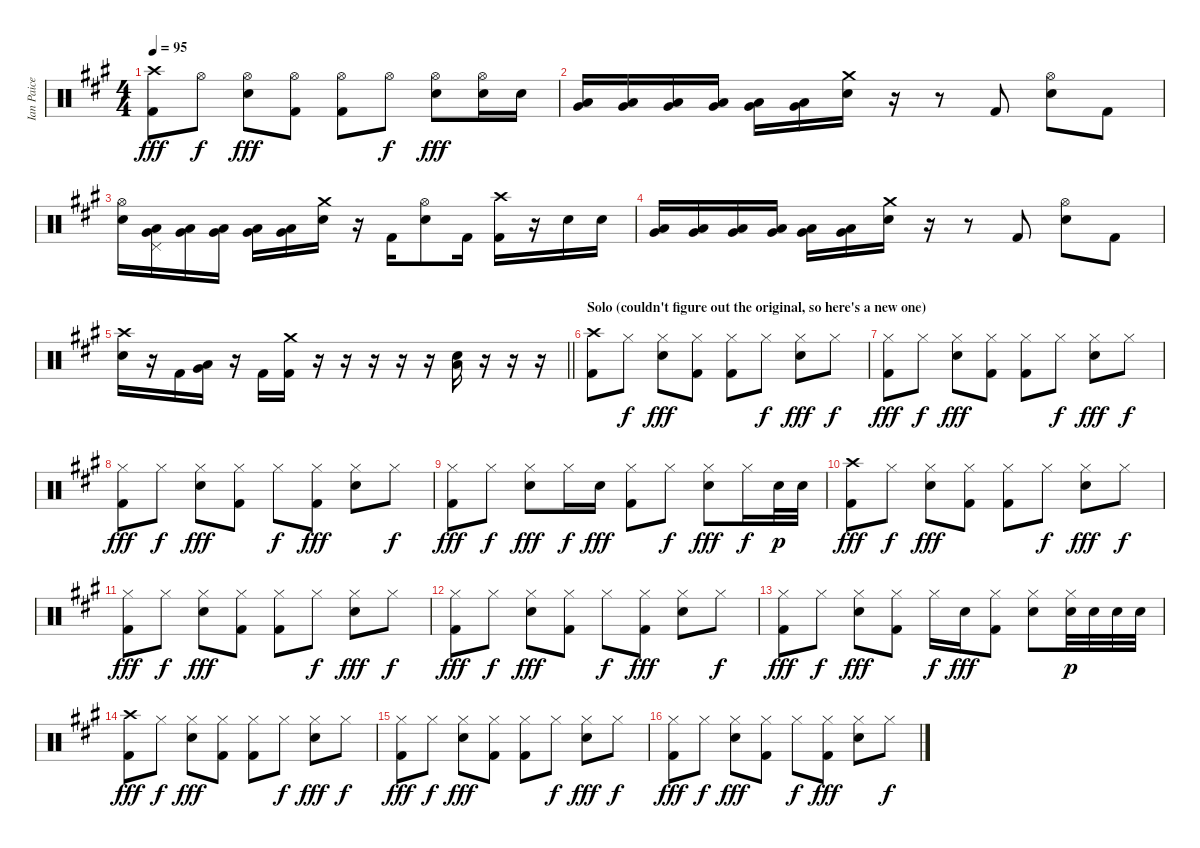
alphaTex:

\track ("Ian Paice" "Ian Paice") {instrument percussion}
\staff {score}
\articulation defaults
\ts (4 4)
\tempo 95
\clef neutral
\ks f#minor
("Crash high (hit)" "Kick (hit) 2").8{dy fff} "Hi-Hat (open)".8{dy f} ("Hi-Hat (open)" "Snare (hit) 2").8{dy fff} ("Hi-Hat (open)" "Kick (hit) 2").8 ("Hi-Hat (open)" "Kick (hit) 2").8 "Hi-Hat (open)".8{dy f} ("Hi-Hat (open)" "Snare (hit) 2").8{dy fff} ("Hi-Hat (open)" "Snare (hit) 2").16 "Snare (hit) 2".16 |
("Low Floor Tom (hit)" "Very Low Tom (hit)").16 ("Low Floor Tom (hit)" "Very Low Tom (hit)").16 ("Low Floor Tom (hit)" "Very Low Tom (hit)").16 ("Low Floor Tom (hit)" "Very Low Tom (hit)").16 ("Low Floor Tom (hit)" "Very Low Tom (hit)").16 ("Low Floor Tom (hit)" "Very Low Tom (hit)").16 ("Crash medium (hit)" "Snare (hit) 2").16 r.16 r.8 "Kick (hit) 2".8 ("Hi-Hat (open)" "Snare (hit) 2").8 "Kick (hit) 2".8 |
("Hi-Hat (open)" "Snare (hit) 2").16 ("Pedal Hi-Hat (hit)" "Low Floor Tom (hit)" "Very Low Tom (hit)").16 ("Low Floor Tom (hit)" "Very Low Tom (hit)").16 ("Low Floor Tom (hit)" "Very Low Tom (hit)").16 ("Low Floor Tom (hit)" "Very Low Tom (hit)").16 ("Low Floor Tom (hit)" "Very Low Tom (hit)").16 ("Crash medium (hit)" "Snare (hit) 2").16 r.16 "Kick (hit) 2".16 ("Hi-Hat (open)" "Snare (hit) 2").8 "Kick (hit) 2".16 ("Crash high (hit)" "Kick (hit) 2").16 r.16 "Snare (hit) 2".16 "Snare (hit) 2".16 |
("Low Floor Tom (hit)" "Very Low Tom (hit)").16 ("Low Floor Tom (hit)" "Very Low Tom (hit)").16 ("Low Floor Tom (hit)" "Very Low Tom (hit)").16 ("Low Floor Tom (hit)" "Very Low Tom (hit)").16 ("Low Floor Tom (hit)" "Very Low Tom (hit)").16 ("Low Floor Tom (hit)" "Very Low Tom (hit)").16 ("Crash medium (hit)" "Snare (hit) 2").16 r.16 r.8 "Kick (hit) 2".8 ("Hi-Hat (open)" "Snare (hit) 2").8 "Kick (hit) 2".8 |
\barLineRight lightlight
("Crash high (hit)" "Snare (hit) 2").16 r.16 "Kick (hit) 2".16 ("Low Floor Tom (hit)" "Very Low Tom (hit)").16 r.16 "Kick (hit) 2".16 ("Crash medium (hit)" "Kick (hit) 2").16 r.16 r.16 r.16 r.16 r.16 ("Low Floor Tom (hit)" "Snare (hit) 2").16 r.16 r.16 r.16 |
\section ("" "Solo (couldn't figure out the original, so here's a new one)")
("Crash high (hit)" "Kick (hit) 2").8 "Hi-Hat (closed)".8{dy f} ("Hi-Hat (closed)" "Snare (hit) 2").8{dy fff} ("Hi-Hat (closed)" "Kick (hit) 2").8 ("Hi-Hat (closed)" "Kick (hit) 2").8 "Hi-Hat (closed)".8{dy f} ("Hi-Hat (closed)" "Snare (hit) 2").8{dy fff} "Hi-Hat (closed)".8{dy f} |
("Hi-Hat (closed)" "Kick (hit) 2").8{dy fff} "Hi-Hat (closed)".8{dy f} ("Hi-Hat (closed)" "Snare (hit) 2").8{dy fff} ("Hi-Hat (closed)" "Kick (hit) 2").8 ("Hi-Hat (closed)" "Kick (hit) 2").8 "Hi-Hat (closed)".8{dy f} ("Hi-Hat (closed)" "Snare (hit) 2").8{dy fff} "Hi-Hat (closed)".8{dy f} |
("Hi-Hat (closed)" "Kick (hit) 2").8{dy fff} "Hi-Hat (closed)".8{dy f} ("Hi-Hat (closed)" "Snare (hit) 2").8{dy fff} ("Hi-Hat (closed)" "Kick (hit) 2").8 "Hi-Hat (closed)".8{dy f} ("Hi-Hat (closed)" "Kick (hit) 2").8{dy fff} ("Hi-Hat (closed)" "Snare (hit) 2").8 "Hi-Hat (closed)".8{dy f} |
("Hi-Hat (closed)" "Kick (hit) 2").8{dy fff} "Hi-Hat (closed)".8{dy f} ("Hi-Hat (closed)" "Snare (hit) 2").8{dy fff} "Hi-Hat (closed)".16{dy f} "Snare (hit) 2".16{dy fff} ("Hi-Hat (closed)" "Kick (hit) 2").8 "Hi-Hat (closed)".8{dy f} ("Hi-Hat (closed)" "Snare (hit) 2").8{dy fff} "Hi-Hat (closed)".16{dy f} "Snare (hit) 2".32{dy p} "Snare (hit) 2".32 |
("Crash high (hit)" "Kick (hit) 2").8{dy fff} "Hi-Hat (closed)".8{dy f} ("Hi-Hat (closed)" "Snare (hit) 2").8{dy fff} ("Hi-Hat (closed)" "Kick (hit) 2").8 ("Hi-Hat (closed)" "Kick (hit) 2").8 "Hi-Hat (closed)".8{dy f} ("Hi-Hat (closed)" "Snare (hit) 2").8{dy fff} "Hi-Hat (closed)".8{dy f} |
("Hi-Hat (closed)" "Kick (hit) 2").8{dy fff} "Hi-Hat (closed)".8{dy f} ("Hi-Hat (closed)" "Snare (hit) 2").8{dy fff} ("Hi-Hat (closed)" "Kick (hit) 2").8 ("Hi-Hat (closed)" "Kick (hit) 2").8 "Hi-Hat (closed)".8{dy f} ("Hi-Hat (closed)" "Snare (hit) 2").8{dy fff} "Hi-Hat (closed)".8{dy f} |
("Hi-Hat (closed)" "Kick (hit) 2").8{dy fff} "Hi-Hat (closed)".8{dy f} ("Hi-Hat (closed)" "Snare (hit) 2").8{dy fff} ("Hi-Hat (closed)" "Kick (hit) 2").8 "Hi-Hat (closed)".8{dy f} ("Hi-Hat (closed)" "Kick (hit) 2").8{dy fff} ("Hi-Hat (closed)" "Snare (hit) 2").8 "Hi-Hat (closed)".8{dy f} |
("Hi-Hat (closed)" "Kick (hit) 2").8{dy fff} "Hi-Hat (closed)".8{dy f} ("Hi-Hat (closed)" "Snare (hit) 2").8{dy fff} ("Hi-Hat (closed)" "Kick (hit) 2").8 "Hi-Hat (closed)".16{dy f} "Snare (hit) 2".16{dy fff} ("Hi-Hat (closed)" "Kick (hit) 2").8 ("Hi-Hat (closed)" "Snare (hit) 2").8 ("Hi-Hat (closed)" "Snare (hit) 2").32{dy p} "Snare (hit) 2".32 "Snare (hit) 2".32 "Snare (hit) 2".32 |
("Crash high (hit)" "Kick (hit) 2").8{dy fff} "Hi-Hat (closed)".8{dy f} ("Hi-Hat (closed)" "Snare (hit) 2").8{dy fff} ("Hi-Hat (closed)" "Kick (hit) 2").8 ("Hi-Hat (closed)" "Kick (hit) 2").8 "Hi-Hat (closed)".8{dy f} ("Hi-Hat (closed)" "Snare (hit) 2").8{dy fff} "Hi-Hat (closed)".8{dy f} |
("Hi-Hat (closed)" "Kick (hit) 2").8{dy fff} "Hi-Hat (closed)".8{dy f} ("Hi-Hat (closed)" "Snare (hit) 2").8{dy fff} ("Hi-Hat (closed)" "Kick (hit) 2").8 ("Hi-Hat (closed)" "Kick (hit) 2").8 "Hi-Hat (closed)".8{dy f} ("Hi-Hat (closed)" "Snare (hit) 2").8{dy fff} "Hi-Hat (closed)".8{dy f} |
("Hi-Hat (closed)" "Kick (hit) 2").8{dy fff} "Hi-Hat (closed)".8{dy f} ("Hi-Hat (closed)" "Snare (hit) 2").8{dy fff} ("Hi-Hat (closed)" "Kick (hit) 2").8 "Hi-Hat (closed)".8{dy f} ("Hi-Hat (closed)" "Kick (hit) 2").8{dy fff} ("Hi-Hat (closed)" "Snare (hit) 2").8 "Hi-Hat (closed)".8{dy f}
